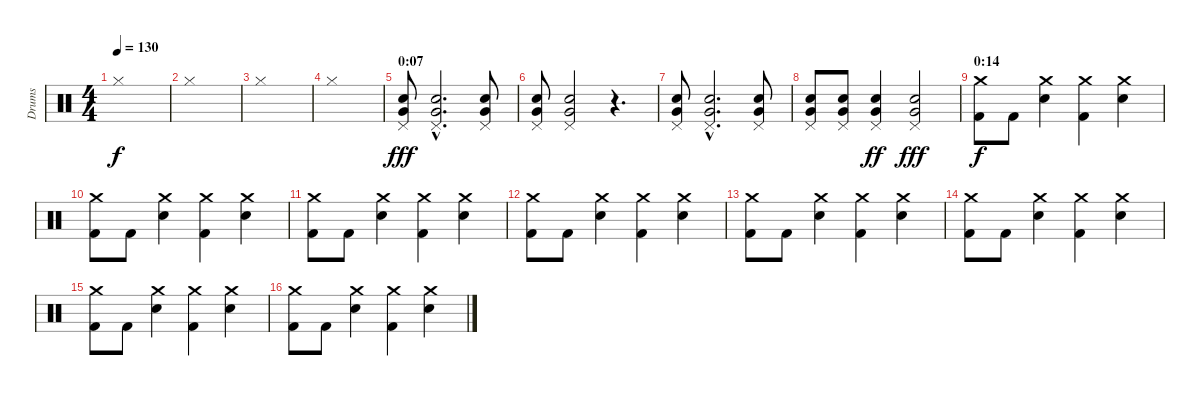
\track ("Drums" "Drums") {instrument percussion}
\staff {score}
\articulation defaults
\ts (4 4)
\tempo 130
\clef neutral
\ks c "Hi-Hat (closed)".1{dy f}
|
"Hi-Hat (closed)".1 |
"Hi-Hat (closed)".1 |
"Hi-Hat (closed)".1 |
\section ("" "0:07")
("Pedal Hi-Hat (hit)" "Snare (hit) 2" "Very Low Tom (hit)").8{dy fff} ("Pedal Hi-Hat (hit)"{hac} "Snare (hit) 2"{hac} "Very Low Tom (hit)"{hac}).2{d} ("Pedal Hi-Hat (hit)" "Snare (hit) 2" "Very Low Tom (hit)").8 |
("Pedal Hi-Hat (hit)" "Snare (hit) 2" "Very Low Tom (hit)").8 ("Pedal Hi-Hat (hit)" "Snare (hit) 2" "Very Low Tom (hit)").2 r.4{d} |
("Pedal Hi-Hat (hit)" "Snare (hit) 2" "Very Low Tom (hit)").8 ("Pedal Hi-Hat (hit)"{hac} "Snare (hit) 2"{hac} "Very Low Tom (hit)"{hac}).2{d} ("Pedal Hi-Hat (hit)" "Snare (hit) 2" "Very Low Tom (hit)").8 |
("Pedal Hi-Hat (hit)" "Snare (hit) 2" "Very Low Tom (hit)").8 ("Pedal Hi-Hat (hit)" "Snare (hit) 2" "Very Low Tom (hit)").8 ("Pedal Hi-Hat (hit)" "Snare (hit) 2" "Very Low Tom (hit)").4{dy ff} ("Pedal Hi-Hat (hit)" "Snare (hit) 2" "Very Low Tom (hit)").2{dy fff} |
\section ("" "0:14")
("Crash medium (hit)" "Kick (hit) 2").8{dy f} "Kick (hit) 2".8 ("Crash medium (hit)" "Snare (hit) 2").4 ("Crash medium (hit)" "Kick (hit) 2").4 ("Crash medium (hit)" "Snare (hit) 2").4 |
("Crash medium (hit)" "Kick (hit) 2").8 "Kick (hit) 2".8 ("Crash medium (hit)" "Snare (hit) 2").4 ("Crash medium (hit)" "Kick (hit) 2").4 ("Crash medium (hit)" "Snare (hit) 2").4 |
("Crash medium (hit)" "Kick (hit) 2").8 "Kick (hit) 2".8 ("Crash medium (hit)" "Snare (hit) 2").4 ("Crash medium (hit)" "Kick (hit) 2").4 ("Crash medium (hit)" "Snare (hit) 2").4 |
("Crash medium (hit)" "Kick (hit) 2").8 "Kick (hit) 2".8 ("Crash medium (hit)" "Snare (hit) 2").4 ("Crash medium (hit)" "Kick (hit) 2").4 ("Crash medium (hit)" "Snare (hit) 2").4 |
("Crash medium (hit)" "Kick (hit) 2").8 "Kick (hit) 2".8 ("Crash medium (hit)" "Snare (hit) 2").4 ("Crash medium (hit)" "Kick (hit) 2").4 ("Crash medium (hit)" "Snare (hit) 2").4 |
("Crash medium (hit)" "Kick (hit) 2").8 "Kick (hit) 2".8 ("Crash medium (hit)" "Snare (hit) 2").4 ("Crash medium (hit)" "Kick (hit) 2").4 ("Crash medium (hit)" "Snare (hit) 2").4 |
("Crash medium (hit)" "Kick (hit) 2").8 "Kick (hit) 2".8 ("Crash medium (hit)" "Snare (hit) 2").4 ("Crash medium (hit)" "Kick (hit) 2").4 ("Crash medium (hit)" "Snare (hit) 2").4 |
("Crash medium (hit)" "Kick (hit) 2").8 "Kick (hit) 2".8 ("Crash medium (hit)" "Snare (hit) 2").4 ("Crash medium (hit)" "Kick (hit) 2").4 ("Crash medium (hit)" "Snare (hit) 2").4
